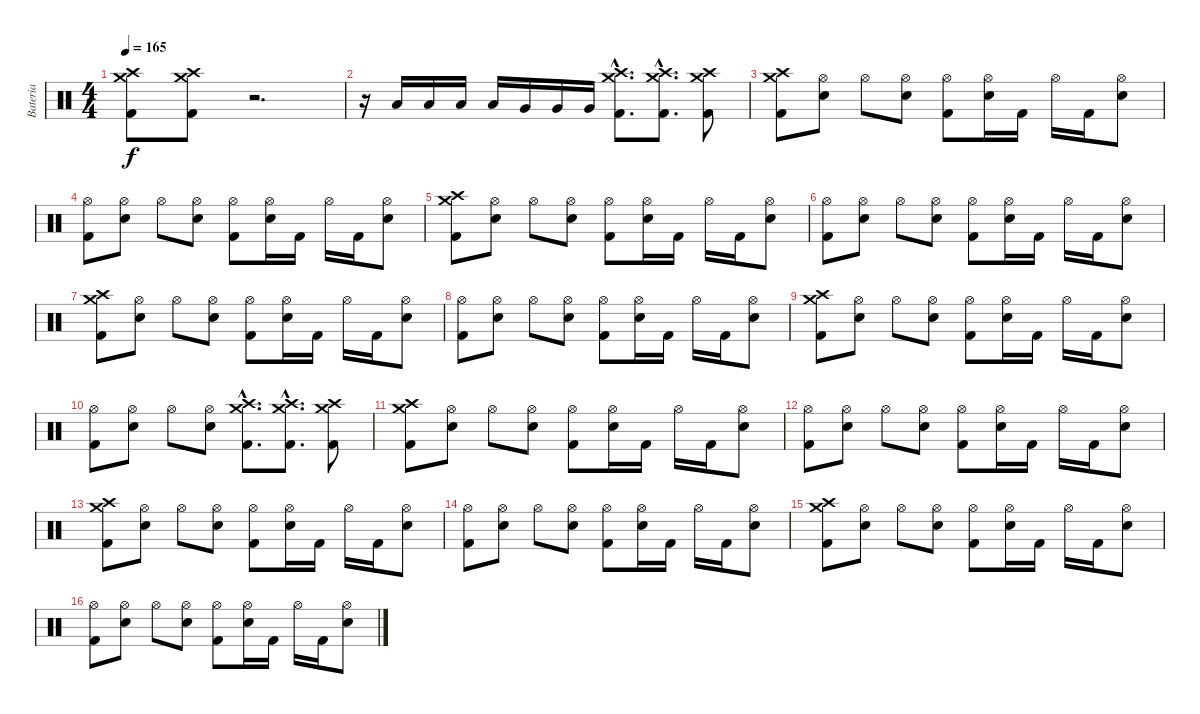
\track ("Bateria" "Bateria") {instrument percussion}
\staff {score}
\articulation defaults
\ts (4 4)
\tempo 165
\clef neutral
\ks c
("Kick (hit) 2" "Crash medium (hit)" "Crash high (hit)").8{dy f} ("Kick (hit) 2" "Crash medium (hit)" "Crash high (hit)").8 r.2{d} |
r.16 "Low Tom (hit)".16 "Low Tom (hit)".16 "Low Tom (hit)".16 "Low Tom (hit)".16 "Very Low Tom (hit)".16 "Very Low Tom (hit)".16 "Very Low Tom (hit)".16 ("Kick (hit) 2"{hac} "Crash medium (hit)"{hac} "Crash high (hit)"{hac}).8{d} ("Kick (hit) 2"{hac} "Crash medium (hit)"{hac} "Crash high (hit)"{hac}).8{d} ("Kick (hit) 2" "Crash medium (hit)" "Crash high (hit)").8 |
("Kick (hit) 2" "Crash medium (hit)" "Crash high (hit)").8 ("Hi-Hat (open)" "Electric Snare (hit)").8 "Hi-Hat (open)".8 ("Hi-Hat (open)" "Electric Snare (hit)").8 ("Kick (hit) 2" "Hi-Hat (open)").8 ("Hi-Hat (open)" "Electric Snare (hit)").16 "Kick (hit) 2".16 "Hi-Hat (open)".16 "Kick (hit) 2".16 ("Hi-Hat (open)" "Electric Snare (hit)").8 |
("Kick (hit) 2" "Hi-Hat (open)").8 ("Hi-Hat (open)" "Electric Snare (hit)").8 "Hi-Hat (open)".8 ("Hi-Hat (open)" "Electric Snare (hit)").8 ("Kick (hit) 2" "Hi-Hat (open)").8 ("Hi-Hat (open)" "Electric Snare (hit)").16 "Kick (hit) 2".16 "Hi-Hat (open)".16 "Kick (hit) 2".16 ("Hi-Hat (open)" "Electric Snare (hit)").8 |
("Kick (hit) 2" "Crash medium (hit)" "Crash high (hit)").8 ("Hi-Hat (open)" "Electric Snare (hit)").8 "Hi-Hat (open)".8 ("Hi-Hat (open)" "Electric Snare (hit)").8 ("Kick (hit) 2" "Hi-Hat (open)").8 ("Hi-Hat (open)" "Electric Snare (hit)").16 "Kick (hit) 2".16 "Hi-Hat (open)".16 "Kick (hit) 2".16 ("Hi-Hat (open)" "Electric Snare (hit)").8 |
("Kick (hit) 2" "Hi-Hat (open)").8 ("Hi-Hat (open)" "Electric Snare (hit)").8 "Hi-Hat (open)".8 ("Hi-Hat (open)" "Electric Snare (hit)").8 ("Kick (hit) 2" "Hi-Hat (open)").8 ("Hi-Hat (open)" "Electric Snare (hit)").16 "Kick (hit) 2".16 "Hi-Hat (open)".16 "Kick (hit) 2".16 ("Hi-Hat (open)" "Electric Snare (hit)").8 |
("Kick (hit) 2" "Crash medium (hit)" "Crash high (hit)").8 ("Hi-Hat (open)" "Electric Snare (hit)").8 "Hi-Hat (open)".8 ("Hi-Hat (open)" "Electric Snare (hit)").8 ("Kick (hit) 2" "Hi-Hat (open)").8 ("Hi-Hat (open)" "Electric Snare (hit)").16 "Kick (hit) 2".16 "Hi-Hat (open)".16 "Kick (hit) 2".16 ("Hi-Hat (open)" "Electric Snare (hit)").8 |
("Kick (hit) 2" "Hi-Hat (open)").8 ("Hi-Hat (open)" "Electric Snare (hit)").8 "Hi-Hat (open)".8 ("Hi-Hat (open)" "Electric Snare (hit)").8 ("Kick (hit) 2" "Hi-Hat (open)").8 ("Hi-Hat (open)" "Electric Snare (hit)").16 "Kick (hit) 2".16 "Hi-Hat (open)".16 "Kick (hit) 2".16 ("Hi-Hat (open)" "Electric Snare (hit)").8 |
("Kick (hit) 2" "Crash medium (hit)" "Crash high (hit)").8 ("Hi-Hat (open)" "Electric Snare (hit)").8 "Hi-Hat (open)".8 ("Hi-Hat (open)" "Electric Snare (hit)").8 ("Kick (hit) 2" "Hi-Hat (open)").8 ("Hi-Hat (open)" "Electric Snare (hit)").16 "Kick (hit) 2".16 "Hi-Hat (open)".16 "Kick (hit) 2".16 ("Hi-Hat (open)" "Electric Snare (hit)").8 |
("Kick (hit) 2" "Hi-Hat (open)").8 ("Hi-Hat (open)" "Electric Snare (hit)").8 "Hi-Hat (open)".8 ("Hi-Hat (open)" "Electric Snare (hit)").8 ("Kick (hit) 2"{hac} "Crash medium (hit)"{hac} "Crash high (hit)"{hac}).8{d} ("Kick (hit) 2"{hac} "Crash medium (hit)"{hac} "Crash high (hit)"{hac}).8{d} ("Kick (hit) 2" "Crash medium (hit)" "Crash high (hit)").8 |
("Kick (hit) 2" "Crash medium (hit)" "Crash high (hit)").8 ("Hi-Hat (open)" "Electric Snare (hit)").8 "Hi-Hat (open)".8 ("Hi-Hat (open)" "Electric Snare (hit)").8 ("Kick (hit) 2" "Hi-Hat (open)").8 ("Hi-Hat (open)" "Electric Snare (hit)").16 "Kick (hit) 2".16 "Hi-Hat (open)".16 "Kick (hit) 2".16 ("Hi-Hat (open)" "Electric Snare (hit)").8 |
("Kick (hit) 2" "Hi-Hat (open)").8 ("Hi-Hat (open)" "Electric Snare (hit)").8 "Hi-Hat (open)".8 ("Hi-Hat (open)" "Electric Snare (hit)").8 ("Kick (hit) 2" "Hi-Hat (open)").8 ("Hi-Hat (open)" "Electric Snare (hit)").16 "Kick (hit) 2".16 "Hi-Hat (open)".16 "Kick (hit) 2".16 ("Hi-Hat (open)" "Electric Snare (hit)").8 |
("Kick (hit) 2" "Crash medium (hit)" "Crash high (hit)").8 ("Hi-Hat (open)" "Electric Snare (hit)").8 "Hi-Hat (open)".8 ("Hi-Hat (open)" "Electric Snare (hit)").8 ("Kick (hit) 2" "Hi-Hat (open)").8 ("Hi-Hat (open)" "Electric Snare (hit)").16 "Kick (hit) 2".16 "Hi-Hat (open)".16 "Kick (hit) 2".16 ("Hi-Hat (open)" "Electric Snare (hit)").8 |
("Kick (hit) 2" "Hi-Hat (open)").8 ("Hi-Hat (open)" "Electric Snare (hit)").8 "Hi-Hat (open)".8 ("Hi-Hat (open)" "Electric Snare (hit)").8 ("Kick (hit) 2" "Hi-Hat (open)").8 ("Hi-Hat (open)" "Electric Snare (hit)").16 "Kick (hit) 2".16 "Hi-Hat (open)".16 "Kick (hit) 2".16 ("Hi-Hat (open)" "Electric Snare (hit)").8 |
("Kick (hit) 2" "Crash medium (hit)" "Crash high (hit)").8 ("Hi-Hat (open)" "Electric Snare (hit)").8 "Hi-Hat (open)".8 ("Hi-Hat (open)" "Electric Snare (hit)").8 ("Kick (hit) 2" "Hi-Hat (open)").8 ("Hi-Hat (open)" "Electric Snare (hit)").16 "Kick (hit) 2".16 "Hi-Hat (open)".16 "Kick (hit) 2".16 ("Hi-Hat (open)" "Electric Snare (hit)").8 |
("Kick (hit) 2" "Hi-Hat (open)").8 ("Hi-Hat (open)" "Electric Snare (hit)").8 "Hi-Hat (open)".8 ("Hi-Hat (open)" "Electric Snare (hit)").8 ("Kick (hit) 2" "Hi-Hat (open)").8 ("Hi-Hat (open)" "Electric Snare (hit)").16 "Kick (hit) 2".16 "Hi-Hat (open)".16 "Kick (hit) 2".16 ("Hi-Hat (open)" "Electric Snare (hit)").8
